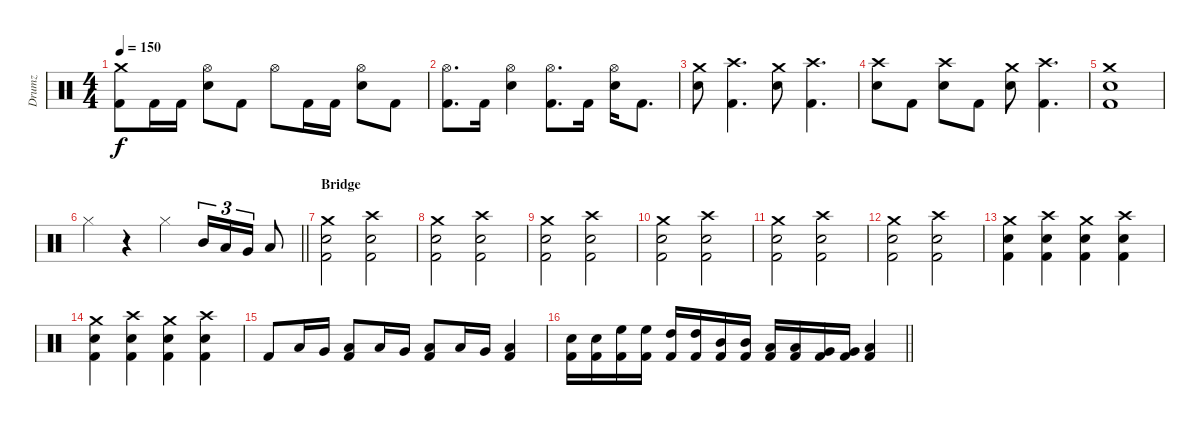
\track ("Drumz" "Drumz") {instrument percussion}
\staff {score}
\articulation defaults
\ts (4 4)
\tempo 150
\clef neutral
\ks c
("Crash medium (hit)" "Kick (hit) 2").8{dy f} "Kick (hit) 2".16 "Kick (hit) 2".16 ("Hi-Hat (open)" "Electric Snare (hit)").8 "Kick (hit) 2".8 "Hi-Hat (open)".8 "Kick (hit) 2".16 "Kick (hit) 2".16 ("Hi-Hat (open)" "Electric Snare (hit)").8 "Kick (hit) 2".8 |
("Hi-Hat (open)" "Kick (hit) 2").8{d} "Kick (hit) 2".16 ("Hi-Hat (open)" "Electric Snare (hit)").4 ("Hi-Hat (open)" "Kick (hit) 2").8{d} "Kick (hit) 2".16 ("Hi-Hat (open)" "Electric Snare (hit)").16 "Kick (hit) 2".8{d} |
("Crash medium (hit)" "Electric Snare (hit)").8 ("Crash high (hit)" "Kick (hit) 2").4{d} ("Crash medium (hit)" "Electric Snare (hit)").8 ("Crash high (hit)" "Kick (hit) 2").4{d} |
("Crash high (hit)" "Electric Snare (hit)").8 "Kick (hit) 2".8 ("Crash high (hit)" "Electric Snare (hit)").8 "Kick (hit) 2".8 ("Crash medium (hit)" "Electric Snare (hit)").8 ("Crash high (hit)" "Kick (hit) 2").4{d} |
("Crash medium (hit)" "Electric Snare (hit)" "Kick (hit) 2").1 |
\barLineRight lightlight "Hi-Hat (closed)".4
r.4 "Hi-Hat (closed)".4 "Mid Tom (hit)".16{tu (3 2)} "Low Tom (hit)".16{tu (3 2)} "Very Low Tom (hit)".16{tu (3 2)} "Low Floor Tom (hit)".8 |
\section ("" "Bridge")
("Crash medium (hit)" "Electric Snare (hit)" "Kick (hit) 2").2 ("Crash high (hit)" "Electric Snare (hit)" "Kick (hit) 2").2 |
("Crash medium (hit)" "Electric Snare (hit)" "Kick (hit) 2").2 ("Crash high (hit)" "Electric Snare (hit)" "Kick (hit) 2").2 |
("Crash medium (hit)" "Electric Snare (hit)" "Kick (hit) 2").2 ("Crash high (hit)" "Electric Snare (hit)" "Kick (hit) 2").2 |
("Crash medium (hit)" "Electric Snare (hit)" "Kick (hit) 2").2 ("Crash high (hit)" "Electric Snare (hit)" "Kick (hit) 2").2 |
("Crash medium (hit)" "Electric Snare (hit)" "Kick (hit) 2").2 ("Crash high (hit)" "Electric Snare (hit)" "Kick (hit) 2").2 |
("Crash medium (hit)" "Electric Snare (hit)" "Kick (hit) 2").2 ("Crash high (hit)" "Electric Snare (hit)" "Kick (hit) 2").2 |
("Crash medium (hit)" "Electric Snare (hit)" "Kick (hit) 2").4 ("Crash high (hit)" "Electric Snare (hit)" "Kick (hit) 2").4 ("Crash medium (hit)" "Electric Snare (hit)" "Kick (hit) 2").4 ("Crash high (hit)" "Electric Snare (hit)" "Kick (hit) 2").4 |
("Crash medium (hit)" "Electric Snare (hit)" "Kick (hit) 2").4 ("Crash high (hit)" "Electric Snare (hit)" "Kick (hit) 2").4 ("Crash medium (hit)" "Electric Snare (hit)" "Kick (hit) 2").4 ("Crash high (hit)" "Electric Snare (hit)" "Kick (hit) 2").4 |
"Kick (hit) 2".8 "Low Tom (hit)".16 "Very Low Tom (hit)".16 ("Low Floor Tom (hit)" "Kick (hit) 2").8 "Low Tom (hit)".16 "Very Low Tom (hit)".16 ("Low Floor Tom (hit)" "Kick (hit) 2").8 "Low Tom (hit)".16 "Very Low Tom (hit)".16 ("Low Floor Tom (hit)" "Kick (hit) 2").4 |
\barLineRight lightlight
("Electric Snare (hit)" "Kick (hit) 2").16 ("Electric Snare (hit)" "Kick (hit) 2").16 ("High Floor Tom (hit)" "Kick (hit) 2").16 ("High Floor Tom (hit)" "Kick (hit) 2").16 ("High Tom (hit)" "Kick (hit) 2").16 ("High Tom (hit)" "Kick (hit) 2").16 ("Mid Tom (hit)" "Kick (hit) 2").16 ("Mid Tom (hit)" "Kick (hit) 2").16 ("Low Tom (hit)" "Kick (hit) 2").16 ("Low Tom (hit)" "Kick (hit) 2").16 ("Very Low Tom (hit)" "Kick (hit) 2").16 ("Very Low Tom (hit)" "Kick (hit) 2").16 ("Low Floor Tom (hit)" "Kick (hit) 2").4
